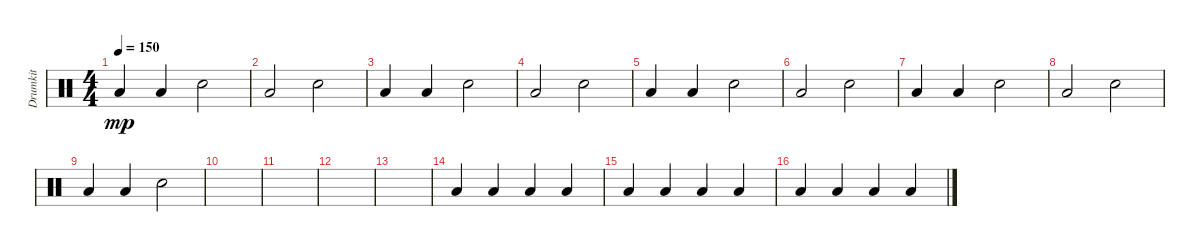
\track ("Drumkit" "Drumkit") {instrument percussion}
\staff {score}
\articulation defaults
\ts (4 4)
\tempo 150
\clef neutral
\ks c "Low Floor Tom (hit)".4{dy mp} "Low Floor Tom (hit)".4 "Snare (hit) 2".2
|
"Low Floor Tom (hit)".2 "Snare (hit) 2".2 |
"Low Floor Tom (hit)".4 "Low Floor Tom (hit)".4 "Snare (hit) 2".2 |
"Low Floor Tom (hit)".2 "Snare (hit) 2".2 |
"Low Floor Tom (hit)".4 "Low Floor Tom (hit)".4 "Snare (hit) 2".2 |
"Low Floor Tom (hit)".2 "Snare (hit) 2".2 |
"Low Floor Tom (hit)".4 "Low Floor Tom (hit)".4 "Snare (hit) 2".2 |
"Low Floor Tom (hit)".2 "Snare (hit) 2".2 |
"Low Floor Tom (hit)".4 "Low Floor Tom (hit)".4 "Snare (hit) 2".2 |
|
|
|
|
"Low Floor Tom (hit)".4 "Low Floor Tom (hit)".4 "Low Floor Tom (hit)".4 "Low Floor Tom (hit)".4 |
"Low Floor Tom (hit)".4 "Low Floor Tom (hit)".4 "Low Floor Tom (hit)".4 "Low Floor Tom (hit)".4 |
"Low Floor Tom (hit)".4 "Low Floor Tom (hit)".4 "Low Floor Tom (hit)".4 "Low Floor Tom (hit)".4
